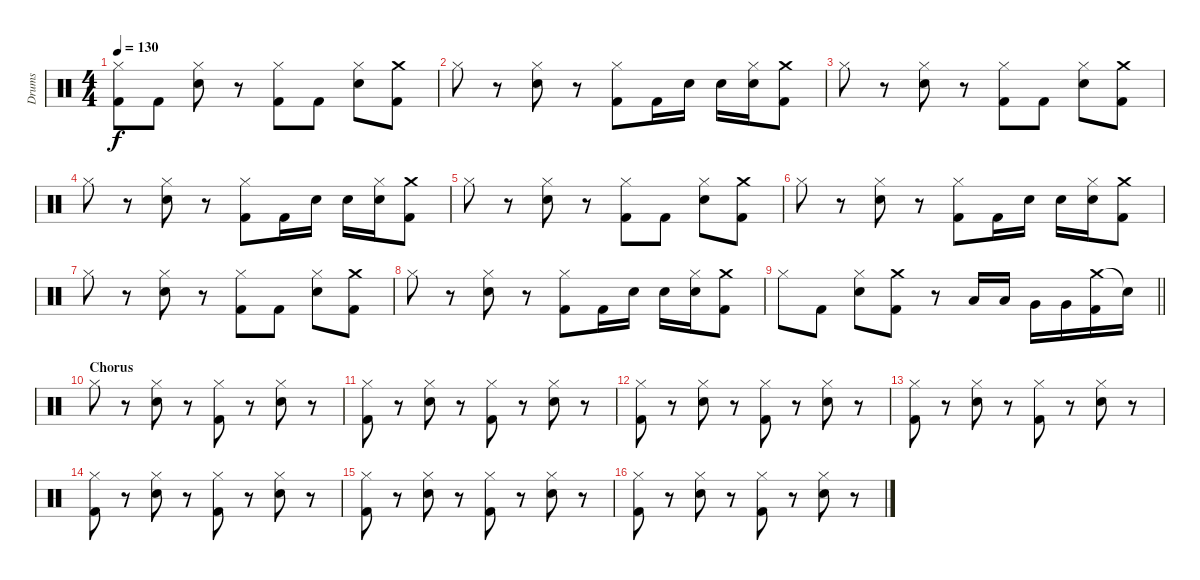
\track ("Drums" "Drums") {instrument percussion}
\staff {score}
\articulation defaults
\ts (4 4)
\tempo 130
\clef neutral
\ks c
("Hi-Hat (closed)" "Kick (hit) 2").8{dy f} "Kick (hit) 2".8 ("Hi-Hat (closed)" "Snare (hit) 2").8 r.8 ("Hi-Hat (closed)" "Kick (hit) 2").8 "Kick (hit) 2".8 ("Hi-Hat (closed)" "Snare (hit) 2").8 ("Crash medium (hit)" "Kick (hit) 2").8 |
"Hi-Hat (closed)".8 r.8 ("Hi-Hat (closed)" "Snare (hit) 2").8 r.8 ("Hi-Hat (closed)" "Kick (hit) 2").8 "Kick (hit) 2".16 "Snare (hit) 2".16 "Snare (hit) 2".16 ("Hi-Hat (closed)" "Snare (hit) 2").16 ("Crash medium (hit)" "Kick (hit) 2").8 |
"Hi-Hat (closed)".8 r.8 ("Hi-Hat (closed)" "Snare (hit) 2").8 r.8 ("Hi-Hat (closed)" "Kick (hit) 2").8 "Kick (hit) 2".8 ("Hi-Hat (closed)" "Snare (hit) 2").8 ("Crash medium (hit)" "Kick (hit) 2").8 |
"Hi-Hat (closed)".8 r.8 ("Hi-Hat (closed)" "Snare (hit) 2").8 r.8 ("Hi-Hat (closed)" "Kick (hit) 2").8 "Kick (hit) 2".16 "Snare (hit) 2".16 "Snare (hit) 2".16 ("Hi-Hat (closed)" "Snare (hit) 2").16 ("Crash medium (hit)" "Kick (hit) 2").8 |
"Hi-Hat (closed)".8 r.8 ("Hi-Hat (closed)" "Snare (hit) 2").8 r.8 ("Hi-Hat (closed)" "Kick (hit) 2").8 "Kick (hit) 2".8 ("Hi-Hat (closed)" "Snare (hit) 2").8 ("Crash medium (hit)" "Kick (hit) 2").8 |
"Hi-Hat (closed)".8 r.8 ("Hi-Hat (closed)" "Snare (hit) 2").8 r.8 ("Hi-Hat (closed)" "Kick (hit) 2").8 "Kick (hit) 2".16 "Snare (hit) 2".16 "Snare (hit) 2".16 ("Hi-Hat (closed)" "Snare (hit) 2").16 ("Crash medium (hit)" "Kick (hit) 2").8 |
"Hi-Hat (closed)".8 r.8 ("Hi-Hat (closed)" "Snare (hit) 2").8 r.8 ("Hi-Hat (closed)" "Kick (hit) 2").8 "Kick (hit) 2".8 ("Hi-Hat (closed)" "Snare (hit) 2").8 ("Crash medium (hit)" "Kick (hit) 2").8 |
"Hi-Hat (closed)".8 r.8 ("Hi-Hat (closed)" "Snare (hit) 2").8 r.8 ("Hi-Hat (closed)" "Kick (hit) 2").8 "Kick (hit) 2".16 "Snare (hit) 2".16 "Snare (hit) 2".16 ("Hi-Hat (closed)" "Snare (hit) 2").16 ("Crash medium (hit)" "Kick (hit) 2").8 |
\barLineRight lightlight "Hi-Hat (closed)".8 "Kick (hit) 2".8
("Hi-Hat (closed)" "Snare (hit) 2").8 ("Crash medium (hit)" "Kick (hit) 2").8 r.8 "Low Tom (hit)".16 "Low Tom (hit)".16 "Very Low Tom (hit)".16 "Very Low Tom (hit)".16 ("Crash medium (hit)" "Kick (hit) 2").16 "Snare (hit)"{t}.16 |
\section ("" "Chorus")
"Hi-Hat (closed)".8 r.8 ("Hi-Hat (closed)" "Snare (hit) 2").8 r.8 ("Hi-Hat (closed)" "Kick (hit) 2").8 r.8 ("Hi-Hat (closed)" "Snare (hit) 2").8 r.8 |
("Hi-Hat (closed)" "Kick (hit) 2").8 r.8 ("Hi-Hat (closed)" "Snare (hit) 2").8 r.8 ("Hi-Hat (closed)" "Kick (hit) 2").8 r.8 ("Hi-Hat (closed)" "Snare (hit) 2").8 r.8 |
("Hi-Hat (closed)" "Kick (hit) 2").8 r.8 ("Hi-Hat (closed)" "Snare (hit) 2").8 r.8 ("Hi-Hat (closed)" "Kick (hit) 2").8 r.8 ("Hi-Hat (closed)" "Snare (hit) 2").8 r.8 |
("Hi-Hat (closed)" "Kick (hit) 2").8 r.8 ("Hi-Hat (closed)" "Snare (hit) 2").8 r.8 ("Hi-Hat (closed)" "Kick (hit) 2").8 r.8 ("Hi-Hat (closed)" "Snare (hit) 2").8 r.8 |
("Hi-Hat (closed)" "Kick (hit) 2").8 r.8 ("Hi-Hat (closed)" "Snare (hit) 2").8 r.8 ("Hi-Hat (closed)" "Kick (hit) 2").8 r.8 ("Hi-Hat (closed)" "Snare (hit) 2").8 r.8 |
("Hi-Hat (closed)" "Kick (hit) 2").8 r.8 ("Hi-Hat (closed)" "Snare (hit) 2").8 r.8 ("Hi-Hat (closed)" "Kick (hit) 2").8 r.8 ("Hi-Hat (closed)" "Snare (hit) 2").8 r.8 |
("Hi-Hat (closed)" "Kick (hit) 2").8 r.8 ("Hi-Hat (closed)" "Snare (hit) 2").8 r.8 ("Hi-Hat (closed)" "Kick (hit) 2").8 r.8 ("Hi-Hat (closed)" "Snare (hit) 2").8 r.8
